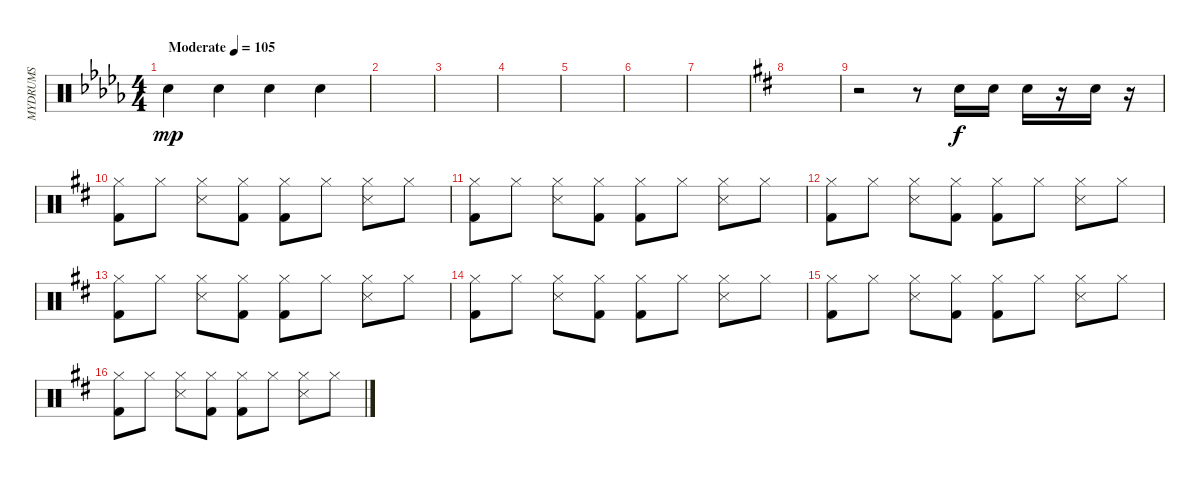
\track ("MYDRUMS" "MYDRUMS") {solo instrument percussion}
\staff {score}
\articulation defaults
\ts (4 4)
\tempo (105 "Moderate")
\clef neutral
\ks db "Snare (hit) 2".4{dy mp} "Snare (hit) 2".4 "Snare (hit) 2".4 "Snare (hit) 2".4
|
|
|
|
|
|
|
\ks d
|
r.2 r.8 "Snare (hit) 2".16{dy f} "Snare (hit) 2".16 "Snare (hit) 2".16 r.16 "Snare (hit) 2".16 r.16 |
("Hi-Hat (closed)" "Kick (hit) 2").8 "Hi-Hat (closed)".8 ("Hi-Hat (closed)" "Snare (side stick) 3").8 ("Hi-Hat (closed)" "Kick (hit) 2").8 ("Hi-Hat (closed)" "Kick (hit) 2").8 "Hi-Hat (closed)".8 ("Hi-Hat (closed)" "Snare (side stick) 3").8 "Hi-Hat (closed)".8 |
("Hi-Hat (closed)" "Kick (hit) 2").8 "Hi-Hat (closed)".8 ("Hi-Hat (closed)" "Snare (side stick) 3").8 ("Hi-Hat (closed)" "Kick (hit) 2").8 ("Hi-Hat (closed)" "Kick (hit) 2").8 "Hi-Hat (closed)".8 ("Hi-Hat (closed)" "Snare (side stick) 3").8 "Hi-Hat (closed)".8 |
("Hi-Hat (closed)" "Kick (hit) 2").8 "Hi-Hat (closed)".8 ("Hi-Hat (closed)" "Snare (side stick) 3").8 ("Hi-Hat (closed)" "Kick (hit) 2").8 ("Hi-Hat (closed)" "Kick (hit) 2").8 "Hi-Hat (closed)".8 ("Hi-Hat (closed)" "Snare (side stick) 3").8 "Hi-Hat (closed)".8 |
("Hi-Hat (closed)" "Kick (hit) 2").8 "Hi-Hat (closed)".8 ("Hi-Hat (closed)" "Snare (side stick) 3").8 ("Hi-Hat (closed)" "Kick (hit) 2").8 ("Hi-Hat (closed)" "Kick (hit) 2").8 "Hi-Hat (closed)".8 ("Hi-Hat (closed)" "Snare (side stick) 3").8 "Hi-Hat (closed)".8 |
("Hi-Hat (closed)" "Kick (hit) 2").8 "Hi-Hat (closed)".8 ("Hi-Hat (closed)" "Snare (side stick) 3").8 ("Hi-Hat (closed)" "Kick (hit) 2").8 ("Hi-Hat (closed)" "Kick (hit) 2").8 "Hi-Hat (closed)".8 ("Hi-Hat (closed)" "Snare (side stick) 3").8 "Hi-Hat (closed)".8 |
("Hi-Hat (closed)" "Kick (hit) 2").8 "Hi-Hat (closed)".8 ("Hi-Hat (closed)" "Snare (side stick) 3").8 ("Hi-Hat (closed)" "Kick (hit) 2").8 ("Hi-Hat (closed)" "Kick (hit) 2").8 "Hi-Hat (closed)".8 ("Hi-Hat (closed)" "Snare (side stick) 3").8 "Hi-Hat (closed)".8 |
("Hi-Hat (closed)" "Kick (hit) 2").8 "Hi-Hat (closed)".8 ("Hi-Hat (closed)" "Snare (side stick) 3").8 ("Hi-Hat (closed)" "Kick (hit) 2").8 ("Hi-Hat (closed)" "Kick (hit) 2").8 "Hi-Hat (closed)".8 ("Hi-Hat (closed)" "Snare (side stick) 3").8 "Hi-Hat (closed)".8
